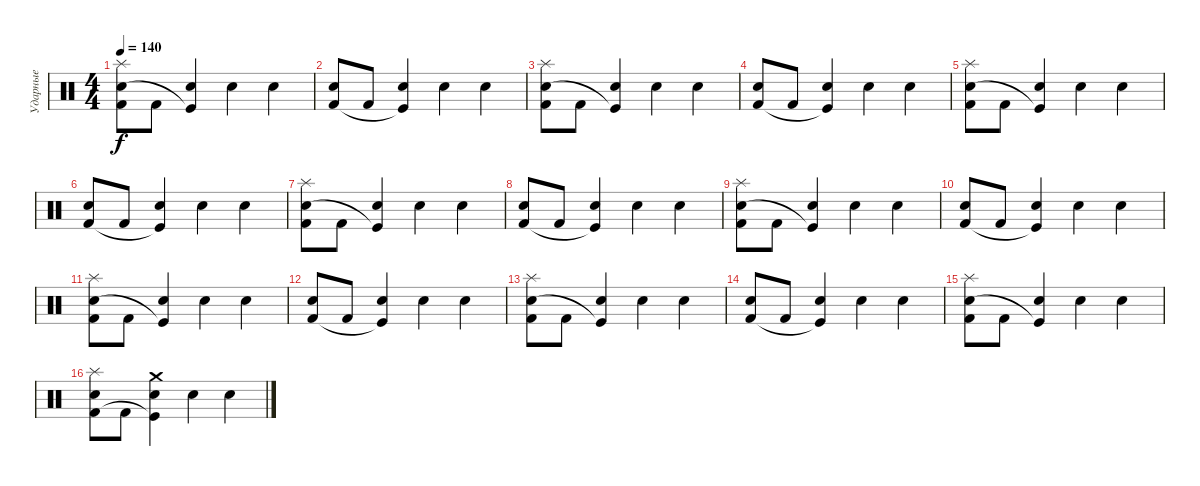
\track ("Ударные" "Ударные") {instrument percussion}
\staff {score}
\articulation defaults
\ts (4 4)
\tempo 140
\clef neutral
\ks c
("Splash (hit)" "Electric Snare (hit)" "Kick (hit) 2").8{dy f} "Kick (hit) 2".8 ("Electric Snare (hit)" "Kick (hit)"{t}).4 "Electric Snare (hit)".4 "Electric Snare (hit)".4 |
("Electric Snare (hit)" "Kick (hit) 2").8 "Kick (hit) 2".8 ("Electric Snare (hit)" "Kick (hit)"{t}).4 "Electric Snare (hit)".4 "Electric Snare (hit)".4 |
("Splash (hit)" "Electric Snare (hit)" "Kick (hit) 2").8 "Kick (hit) 2".8 ("Electric Snare (hit)" "Kick (hit)"{t}).4 "Electric Snare (hit)".4 "Electric Snare (hit)".4 |
("Electric Snare (hit)" "Kick (hit) 2").8 "Kick (hit) 2".8 ("Electric Snare (hit)" "Kick (hit)"{t}).4 "Electric Snare (hit)".4 "Electric Snare (hit)".4 |
("Splash (hit)" "Electric Snare (hit)" "Kick (hit) 2").8 "Kick (hit) 2".8 ("Electric Snare (hit)" "Kick (hit)"{t}).4 "Electric Snare (hit)".4 "Electric Snare (hit)".4 |
("Electric Snare (hit)" "Kick (hit) 2").8 "Kick (hit) 2".8 ("Electric Snare (hit)" "Kick (hit)"{t}).4 "Electric Snare (hit)".4 "Electric Snare (hit)".4 |
("Splash (hit)" "Electric Snare (hit)" "Kick (hit) 2").8 "Kick (hit) 2".8 ("Electric Snare (hit)" "Kick (hit)"{t}).4 "Electric Snare (hit)".4 "Electric Snare (hit)".4 |
("Electric Snare (hit)" "Kick (hit) 2").8 "Kick (hit) 2".8 ("Electric Snare (hit)" "Kick (hit)"{t}).4 "Electric Snare (hit)".4 "Electric Snare (hit)".4 |
("Splash (hit)" "Electric Snare (hit)" "Kick (hit) 2").8 "Kick (hit) 2".8 ("Electric Snare (hit)" "Kick (hit)"{t}).4 "Electric Snare (hit)".4 "Electric Snare (hit)".4 |
("Electric Snare (hit)" "Kick (hit) 2").8 "Kick (hit) 2".8 ("Electric Snare (hit)" "Kick (hit)"{t}).4 "Electric Snare (hit)".4 "Electric Snare (hit)".4 |
("Splash (hit)" "Electric Snare (hit)" "Kick (hit) 2").8 "Kick (hit) 2".8 ("Electric Snare (hit)" "Kick (hit)"{t}).4 "Electric Snare (hit)".4 "Electric Snare (hit)".4 |
("Electric Snare (hit)" "Kick (hit) 2").8 "Kick (hit) 2".8 ("Electric Snare (hit)" "Kick (hit)"{t}).4 "Electric Snare (hit)".4 "Electric Snare (hit)".4 |
("Splash (hit)" "Electric Snare (hit)" "Kick (hit) 2").8 "Kick (hit) 2".8 ("Electric Snare (hit)" "Kick (hit)"{t}).4 "Electric Snare (hit)".4 "Electric Snare (hit)".4 |
("Electric Snare (hit)" "Kick (hit) 2").8 "Kick (hit) 2".8 ("Electric Snare (hit)" "Kick (hit)"{t}).4 "Electric Snare (hit)".4 "Electric Snare (hit)".4 |
("Splash (hit)" "Electric Snare (hit)" "Kick (hit) 2").8 "Kick (hit) 2".8 ("Electric Snare (hit)" "Kick (hit)"{t}).4 "Electric Snare (hit)".4 "Electric Snare (hit)".4 |
("Splash (hit)" "Electric Snare (hit)" "Kick (hit) 2").8 "Kick (hit) 2".8 ("Crash medium (hit)" "Electric Snare (hit)" "Kick (hit)"{t}).4 "Electric Snare (hit)".4 "Electric Snare (hit)".4
